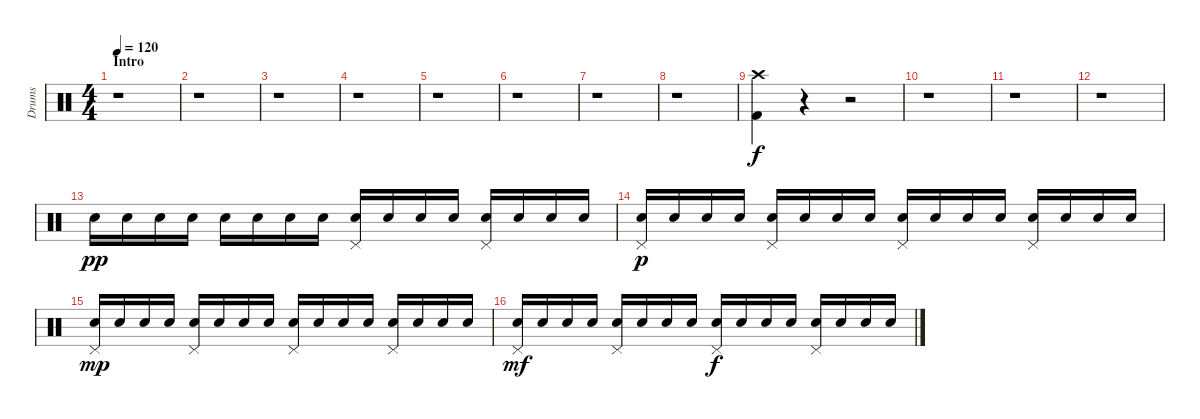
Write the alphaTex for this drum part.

\track ("Drums" "Drums") {instrument percussion}
\staff {score}
\articulation defaults
\ts (4 4)
\section ("" "Intro")
\tempo 120
\clef neutral
\ks c
r.1{dy f} |
r.1 |
r.1 |
r.1 |
r.1 |
r.1 |
r.1 |
r.1 |
("Crash high (hit)" "Kick (hit) 2").4 r.4 r.2 |
r.1 |
r.1 |
r.1 |
"Electric Snare (hit)".16{dy pp} "Electric Snare (hit)".16 "Electric Snare (hit)".16 "Electric Snare (hit)".16 "Electric Snare (hit)".16 "Electric Snare (hit)".16 "Electric Snare (hit)".16 "Electric Snare (hit)".16 ("Electric Snare (hit)" "Pedal Hi-Hat (hit)").16 "Electric Snare (hit)".16 "Electric Snare (hit)".16 "Electric Snare (hit)".16 ("Electric Snare (hit)" "Pedal Hi-Hat (hit)").16 "Electric Snare (hit)".16 "Electric Snare (hit)".16 "Electric Snare (hit)".16 |
("Electric Snare (hit)" "Pedal Hi-Hat (hit)").16{dy p} "Electric Snare (hit)".16 "Electric Snare (hit)".16 "Electric Snare (hit)".16 ("Electric Snare (hit)" "Pedal Hi-Hat (hit)").16 "Electric Snare (hit)".16 "Electric Snare (hit)".16 "Electric Snare (hit)".16 ("Electric Snare (hit)" "Pedal Hi-Hat (hit)").16 "Electric Snare (hit)".16 "Electric Snare (hit)".16 "Electric Snare (hit)".16 ("Electric Snare (hit)" "Pedal Hi-Hat (hit)").16 "Electric Snare (hit)".16 "Electric Snare (hit)".16 "Electric Snare (hit)".16 |
("Electric Snare (hit)" "Pedal Hi-Hat (hit)").16{dy mp} "Electric Snare (hit)".16 "Electric Snare (hit)".16 "Electric Snare (hit)".16 ("Electric Snare (hit)" "Pedal Hi-Hat (hit)").16 "Electric Snare (hit)".16 "Electric Snare (hit)".16 "Electric Snare (hit)".16 ("Electric Snare (hit)" "Pedal Hi-Hat (hit)").16 "Electric Snare (hit)".16 "Electric Snare (hit)".16 "Electric Snare (hit)".16 ("Electric Snare (hit)" "Pedal Hi-Hat (hit)").16 "Electric Snare (hit)".16 "Electric Snare (hit)".16 "Electric Snare (hit)".16 |
("Electric Snare (hit)" "Pedal Hi-Hat (hit)").16{dy mf} "Electric Snare (hit)".16 "Electric Snare (hit)".16 "Electric Snare (hit)".16 ("Electric Snare (hit)" "Pedal Hi-Hat (hit)").16 "Electric Snare (hit)".16 "Electric Snare (hit)".16 "Electric Snare (hit)".16 ("Electric Snare (hit)" "Pedal Hi-Hat (hit)").16{dy f} "Electric Snare (hit)".16 "Electric Snare (hit)".16 "Electric Snare (hit)".16 ("Electric Snare (hit)" "Pedal Hi-Hat (hit)").16 "Electric Snare (hit)".16 "Electric Snare (hit)".16 "Electric Snare (hit)".16
